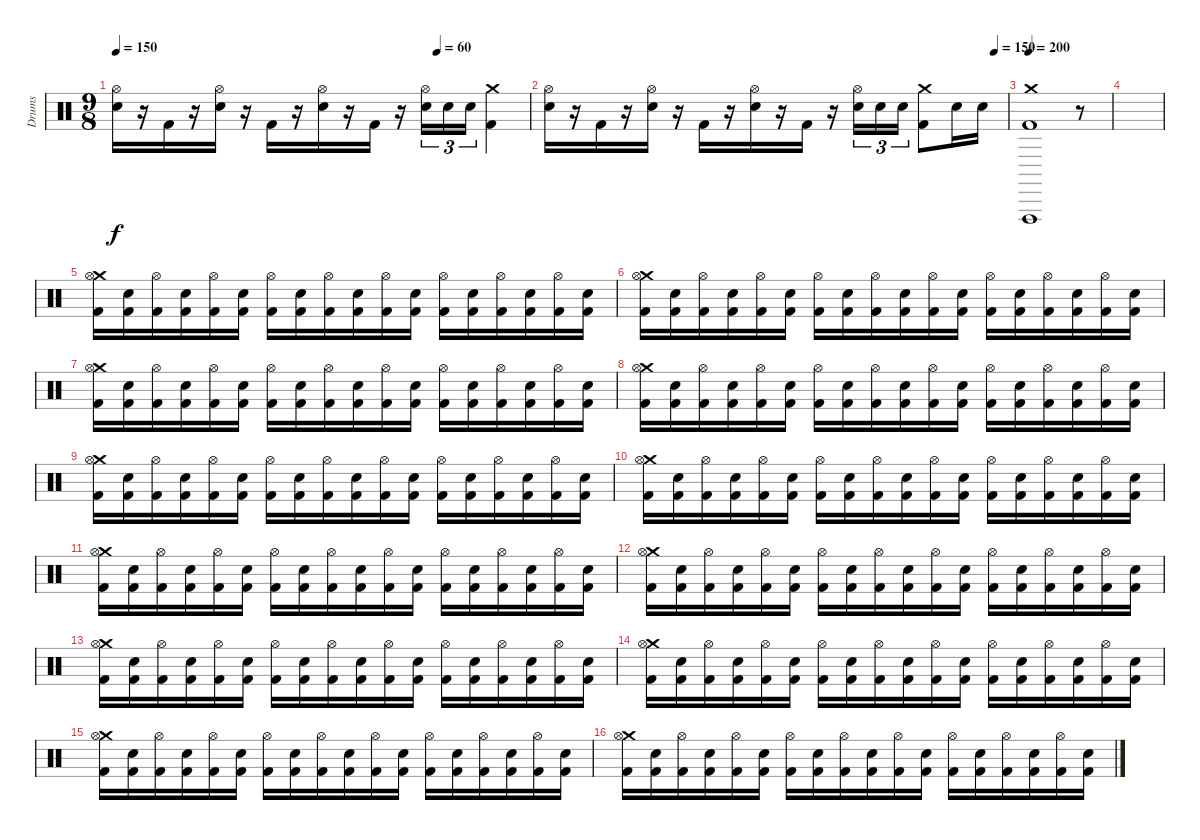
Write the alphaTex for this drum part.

\track ("Drums" "Drums") {instrument percussion}
\staff {score}
\articulation defaults
\ts (9 8)
\tempo 150
\tempo (60 0.7777777777777778)
\clef neutral
\ks c
("Hi-Hat (open)" "Electric Snare (hit)").16{dy f} r.16 "Kick (hit) 2".16 r.16 ("Hi-Hat (open)" "Electric Snare (hit)").16 r.16 "Kick (hit) 2".16 r.16 ("Hi-Hat (open)" "Electric Snare (hit)").16 r.16 "Kick (hit) 2".16 r.16 ("Hi-Hat (open)" "Electric Snare (hit)").16{tu (3 2)} "Electric Snare (hit)".16{tu (3 2)} "Electric Snare (hit)".16{tu (3 2)} ("Crash medium (hit)" "Kick (hit) 2").4 |
\tempo (150 0.9722222222222222)
("Hi-Hat (open)" "Electric Snare (hit)").16 r.16 "Kick (hit) 2".16 r.16 ("Hi-Hat (open)" "Electric Snare (hit)").16 r.16 "Kick (hit) 2".16 r.16 ("Hi-Hat (open)" "Electric Snare (hit)").16 r.16 "Kick (hit) 2".16 r.16 ("Hi-Hat (open)" "Electric Snare (hit)").16{tu (3 2)} "Electric Snare (hit)".16{tu (3 2)} "Electric Snare (hit)".16{tu (3 2)} ("Crash medium (hit)" "Kick (hit) 2").8 "Electric Snare (hit)".16 "Electric Snare (hit)".16 |
\tempo 200
("Crash medium (hit)" "Vibraslap (hit)" "Kick (hit) 2").1 r.8 |
|
("Crash medium (hit)" "Hi-Hat (open)" "Kick (hit) 2").16 ("Electric Snare (hit)" "Kick (hit) 2").16 ("Hi-Hat (open)" "Kick (hit) 2").16 ("Electric Snare (hit)" "Kick (hit) 2").16 ("Hi-Hat (open)" "Kick (hit) 2").16 ("Electric Snare (hit)" "Kick (hit) 2").16 ("Hi-Hat (open)" "Kick (hit) 2").16 ("Electric Snare (hit)" "Kick (hit) 2").16 ("Hi-Hat (open)" "Kick (hit) 2").16 ("Electric Snare (hit)" "Kick (hit) 2").16 ("Hi-Hat (open)" "Kick (hit) 2").16 ("Electric Snare (hit)" "Kick (hit) 2").16 ("Hi-Hat (open)" "Kick (hit) 2").16 ("Electric Snare (hit)" "Kick (hit) 2").16 ("Hi-Hat (open)" "Kick (hit) 2").16 ("Electric Snare (hit)" "Kick (hit) 2").16 ("Hi-Hat (open)" "Kick (hit) 2").16 ("Electric Snare (hit)" "Kick (hit) 2").16 |
("Crash medium (hit)" "Hi-Hat (open)" "Kick (hit) 2").16 ("Electric Snare (hit)" "Kick (hit) 2").16 ("Hi-Hat (open)" "Kick (hit) 2").16 ("Electric Snare (hit)" "Kick (hit) 2").16 ("Hi-Hat (open)" "Kick (hit) 2").16 ("Electric Snare (hit)" "Kick (hit) 2").16 ("Hi-Hat (open)" "Kick (hit) 2").16 ("Electric Snare (hit)" "Kick (hit) 2").16 ("Hi-Hat (open)" "Kick (hit) 2").16 ("Electric Snare (hit)" "Kick (hit) 2").16 ("Hi-Hat (open)" "Kick (hit) 2").16 ("Electric Snare (hit)" "Kick (hit) 2").16 ("Hi-Hat (open)" "Kick (hit) 2").16 ("Electric Snare (hit)" "Kick (hit) 2").16 ("Hi-Hat (open)" "Kick (hit) 2").16 ("Electric Snare (hit)" "Kick (hit) 2").16 ("Hi-Hat (open)" "Kick (hit) 2").16 ("Electric Snare (hit)" "Kick (hit) 2").16 |
("Crash medium (hit)" "Hi-Hat (open)" "Kick (hit) 2").16 ("Electric Snare (hit)" "Kick (hit) 2").16 ("Hi-Hat (open)" "Kick (hit) 2").16 ("Electric Snare (hit)" "Kick (hit) 2").16 ("Hi-Hat (open)" "Kick (hit) 2").16 ("Electric Snare (hit)" "Kick (hit) 2").16 ("Hi-Hat (open)" "Kick (hit) 2").16 ("Electric Snare (hit)" "Kick (hit) 2").16 ("Hi-Hat (open)" "Kick (hit) 2").16 ("Electric Snare (hit)" "Kick (hit) 2").16 ("Hi-Hat (open)" "Kick (hit) 2").16 ("Electric Snare (hit)" "Kick (hit) 2").16 ("Hi-Hat (open)" "Kick (hit) 2").16 ("Electric Snare (hit)" "Kick (hit) 2").16 ("Hi-Hat (open)" "Kick (hit) 2").16 ("Electric Snare (hit)" "Kick (hit) 2").16 ("Hi-Hat (open)" "Kick (hit) 2").16 ("Electric Snare (hit)" "Kick (hit) 2").16 |
("Crash medium (hit)" "Hi-Hat (open)" "Kick (hit) 2").16 ("Electric Snare (hit)" "Kick (hit) 2").16 ("Hi-Hat (open)" "Kick (hit) 2").16 ("Electric Snare (hit)" "Kick (hit) 2").16 ("Hi-Hat (open)" "Kick (hit) 2").16 ("Electric Snare (hit)" "Kick (hit) 2").16 ("Hi-Hat (open)" "Kick (hit) 2").16 ("Electric Snare (hit)" "Kick (hit) 2").16 ("Hi-Hat (open)" "Kick (hit) 2").16 ("Electric Snare (hit)" "Kick (hit) 2").16 ("Hi-Hat (open)" "Kick (hit) 2").16 ("Electric Snare (hit)" "Kick (hit) 2").16 ("Hi-Hat (open)" "Kick (hit) 2").16 ("Electric Snare (hit)" "Kick (hit) 2").16 ("Hi-Hat (open)" "Kick (hit) 2").16 ("Electric Snare (hit)" "Kick (hit) 2").16 ("Hi-Hat (open)" "Kick (hit) 2").16 ("Electric Snare (hit)" "Kick (hit) 2").16 |
("Crash medium (hit)" "Hi-Hat (open)" "Kick (hit) 2").16 ("Electric Snare (hit)" "Kick (hit) 2").16 ("Hi-Hat (open)" "Kick (hit) 2").16 ("Electric Snare (hit)" "Kick (hit) 2").16 ("Hi-Hat (open)" "Kick (hit) 2").16 ("Electric Snare (hit)" "Kick (hit) 2").16 ("Hi-Hat (open)" "Kick (hit) 2").16 ("Electric Snare (hit)" "Kick (hit) 2").16 ("Hi-Hat (open)" "Kick (hit) 2").16 ("Electric Snare (hit)" "Kick (hit) 2").16 ("Hi-Hat (open)" "Kick (hit) 2").16 ("Electric Snare (hit)" "Kick (hit) 2").16 ("Hi-Hat (open)" "Kick (hit) 2").16 ("Electric Snare (hit)" "Kick (hit) 2").16 ("Hi-Hat (open)" "Kick (hit) 2").16 ("Electric Snare (hit)" "Kick (hit) 2").16 ("Hi-Hat (open)" "Kick (hit) 2").16 ("Electric Snare (hit)" "Kick (hit) 2").16 |
("Crash medium (hit)" "Hi-Hat (open)" "Kick (hit) 2").16 ("Electric Snare (hit)" "Kick (hit) 2").16 ("Hi-Hat (open)" "Kick (hit) 2").16 ("Electric Snare (hit)" "Kick (hit) 2").16 ("Hi-Hat (open)" "Kick (hit) 2").16 ("Electric Snare (hit)" "Kick (hit) 2").16 ("Hi-Hat (open)" "Kick (hit) 2").16 ("Electric Snare (hit)" "Kick (hit) 2").16 ("Hi-Hat (open)" "Kick (hit) 2").16 ("Electric Snare (hit)" "Kick (hit) 2").16 ("Hi-Hat (open)" "Kick (hit) 2").16 ("Electric Snare (hit)" "Kick (hit) 2").16 ("Hi-Hat (open)" "Kick (hit) 2").16 ("Electric Snare (hit)" "Kick (hit) 2").16 ("Hi-Hat (open)" "Kick (hit) 2").16 ("Electric Snare (hit)" "Kick (hit) 2").16 ("Hi-Hat (open)" "Kick (hit) 2").16 ("Electric Snare (hit)" "Kick (hit) 2").16 |
("Crash medium (hit)" "Hi-Hat (open)" "Kick (hit) 2").16 ("Electric Snare (hit)" "Kick (hit) 2").16 ("Hi-Hat (open)" "Kick (hit) 2").16 ("Electric Snare (hit)" "Kick (hit) 2").16 ("Hi-Hat (open)" "Kick (hit) 2").16 ("Electric Snare (hit)" "Kick (hit) 2").16 ("Hi-Hat (open)" "Kick (hit) 2").16 ("Electric Snare (hit)" "Kick (hit) 2").16 ("Hi-Hat (open)" "Kick (hit) 2").16 ("Electric Snare (hit)" "Kick (hit) 2").16 ("Hi-Hat (open)" "Kick (hit) 2").16 ("Electric Snare (hit)" "Kick (hit) 2").16 ("Hi-Hat (open)" "Kick (hit) 2").16 ("Electric Snare (hit)" "Kick (hit) 2").16 ("Hi-Hat (open)" "Kick (hit) 2").16 ("Electric Snare (hit)" "Kick (hit) 2").16 ("Hi-Hat (open)" "Kick (hit) 2").16 ("Electric Snare (hit)" "Kick (hit) 2").16 |
("Crash medium (hit)" "Hi-Hat (open)" "Kick (hit) 2").16 ("Electric Snare (hit)" "Kick (hit) 2").16 ("Hi-Hat (open)" "Kick (hit) 2").16 ("Electric Snare (hit)" "Kick (hit) 2").16 ("Hi-Hat (open)" "Kick (hit) 2").16 ("Electric Snare (hit)" "Kick (hit) 2").16 ("Hi-Hat (open)" "Kick (hit) 2").16 ("Electric Snare (hit)" "Kick (hit) 2").16 ("Hi-Hat (open)" "Kick (hit) 2").16 ("Electric Snare (hit)" "Kick (hit) 2").16 ("Hi-Hat (open)" "Kick (hit) 2").16 ("Electric Snare (hit)" "Kick (hit) 2").16 ("Hi-Hat (open)" "Kick (hit) 2").16 ("Electric Snare (hit)" "Kick (hit) 2").16 ("Hi-Hat (open)" "Kick (hit) 2").16 ("Electric Snare (hit)" "Kick (hit) 2").16 ("Hi-Hat (open)" "Kick (hit) 2").16 ("Electric Snare (hit)" "Kick (hit) 2").16 |
("Crash medium (hit)" "Hi-Hat (open)" "Kick (hit) 2").16{volume 10} ("Electric Snare (hit)" "Kick (hit) 2").16 ("Hi-Hat (open)" "Kick (hit) 2").16 ("Electric Snare (hit)" "Kick (hit) 2").16 ("Hi-Hat (open)" "Kick (hit) 2").16 ("Electric Snare (hit)" "Kick (hit) 2").16 ("Hi-Hat (open)" "Kick (hit) 2").16 ("Electric Snare (hit)" "Kick (hit) 2").16 ("Hi-Hat (open)" "Kick (hit) 2").16 ("Electric Snare (hit)" "Kick (hit) 2").16 ("Hi-Hat (open)" "Kick (hit) 2").16 ("Electric Snare (hit)" "Kick (hit) 2").16 ("Hi-Hat (open)" "Kick (hit) 2").16 ("Electric Snare (hit)" "Kick (hit) 2").16 ("Hi-Hat (open)" "Kick (hit) 2").16 ("Electric Snare (hit)" "Kick (hit) 2").16 ("Hi-Hat (open)" "Kick (hit) 2").16 ("Electric Snare (hit)" "Kick (hit) 2").16 |
("Crash medium (hit)" "Hi-Hat (open)" "Kick (hit) 2").16 ("Electric Snare (hit)" "Kick (hit) 2").16 ("Hi-Hat (open)" "Kick (hit) 2").16 ("Electric Snare (hit)" "Kick (hit) 2").16 ("Hi-Hat (open)" "Kick (hit) 2").16 ("Electric Snare (hit)" "Kick (hit) 2").16 ("Hi-Hat (open)" "Kick (hit) 2").16 ("Electric Snare (hit)" "Kick (hit) 2").16 ("Hi-Hat (open)" "Kick (hit) 2").16 ("Electric Snare (hit)" "Kick (hit) 2").16 ("Hi-Hat (open)" "Kick (hit) 2").16 ("Electric Snare (hit)" "Kick (hit) 2").16 ("Hi-Hat (open)" "Kick (hit) 2").16 ("Electric Snare (hit)" "Kick (hit) 2").16 ("Hi-Hat (open)" "Kick (hit) 2").16 ("Electric Snare (hit)" "Kick (hit) 2").16 ("Hi-Hat (open)" "Kick (hit) 2").16 ("Electric Snare (hit)" "Kick (hit) 2").16 |
("Crash medium (hit)" "Hi-Hat (open)" "Kick (hit) 2").16 ("Electric Snare (hit)" "Kick (hit) 2").16 ("Hi-Hat (open)" "Kick (hit) 2").16 ("Electric Snare (hit)" "Kick (hit) 2").16 ("Hi-Hat (open)" "Kick (hit) 2").16 ("Electric Snare (hit)" "Kick (hit) 2").16 ("Hi-Hat (open)" "Kick (hit) 2").16 ("Electric Snare (hit)" "Kick (hit) 2").16 ("Hi-Hat (open)" "Kick (hit) 2").16 ("Electric Snare (hit)" "Kick (hit) 2").16 ("Hi-Hat (open)" "Kick (hit) 2").16 ("Electric Snare (hit)" "Kick (hit) 2").16 ("Hi-Hat (open)" "Kick (hit) 2").16 ("Electric Snare (hit)" "Kick (hit) 2").16 ("Hi-Hat (open)" "Kick (hit) 2").16 ("Electric Snare (hit)" "Kick (hit) 2").16 ("Hi-Hat (open)" "Kick (hit) 2").16 ("Electric Snare (hit)" "Kick (hit) 2").16 |
("Crash medium (hit)" "Hi-Hat (open)" "Kick (hit) 2").16 ("Electric Snare (hit)" "Kick (hit) 2").16 ("Hi-Hat (open)" "Kick (hit) 2").16 ("Electric Snare (hit)" "Kick (hit) 2").16 ("Hi-Hat (open)" "Kick (hit) 2").16 ("Electric Snare (hit)" "Kick (hit) 2").16 ("Hi-Hat (open)" "Kick (hit) 2").16 ("Electric Snare (hit)" "Kick (hit) 2").16 ("Hi-Hat (open)" "Kick (hit) 2").16 ("Electric Snare (hit)" "Kick (hit) 2").16 ("Hi-Hat (open)" "Kick (hit) 2").16 ("Electric Snare (hit)" "Kick (hit) 2").16 ("Hi-Hat (open)" "Kick (hit) 2").16 ("Electric Snare (hit)" "Kick (hit) 2").16 ("Hi-Hat (open)" "Kick (hit) 2").16 ("Electric Snare (hit)" "Kick (hit) 2").16 ("Hi-Hat (open)" "Kick (hit) 2").16 ("Electric Snare (hit)" "Kick (hit) 2").16
